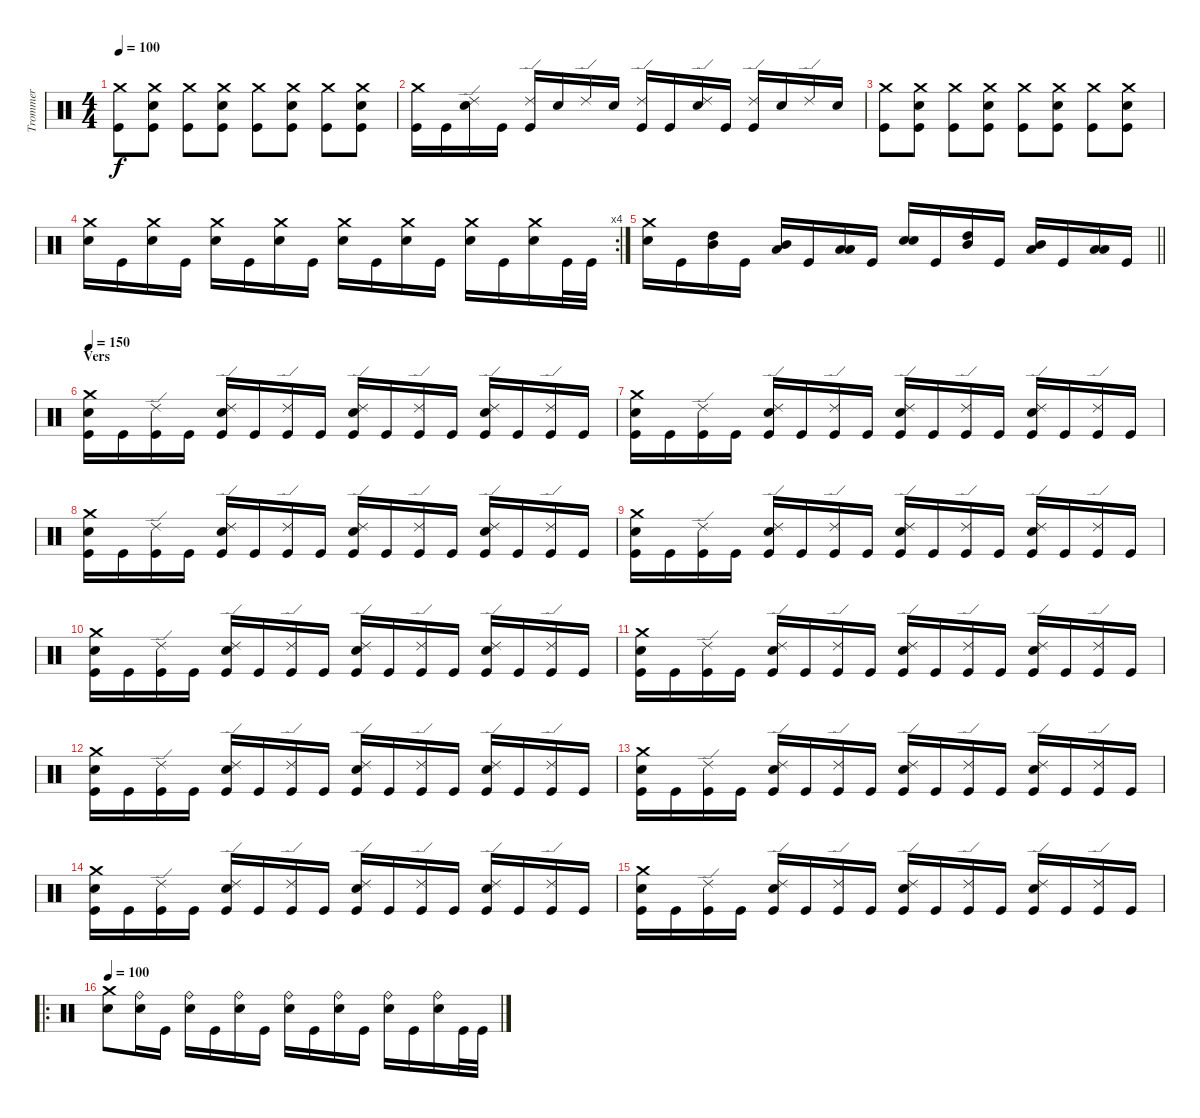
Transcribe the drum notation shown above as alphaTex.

\track ("Trommer" "Trommer") {instrument percussion}
\staff {score}
\articulation defaults
\ts (4 4)
\tempo 100
\clef neutral
\ks c
("Crash medium (hit)" "Kick (hit)").8{dy f} ("Crash medium (hit)" "Snare (hit) 2" "Kick (hit)").8 ("Crash medium (hit)" "Kick (hit)").8 ("Crash medium (hit)" "Snare (hit) 2" "Kick (hit)").8 ("Crash medium (hit)" "Kick (hit)").8 ("Crash medium (hit)" "Snare (hit) 2" "Kick (hit)").8 ("Crash medium (hit)" "Kick (hit)").8 ("Crash medium (hit)" "Snare (hit) 2" "Kick (hit)").8 |
("Crash medium (hit)" "Kick (hit)").16 "Kick (hit)".16 ("Ride (edge) 2" "Snare (hit) 2").16 "Kick (hit)".16 ("Ride (edge) 2" "Kick (hit)").16 "Snare (hit) 2".16 "Ride (edge) 2".16 "Snare (hit) 2".16 ("Ride (edge) 2" "Kick (hit)").16 "Kick (hit)".16 ("Ride (edge) 2" "Snare (hit) 2").16 "Kick (hit)".16 ("Ride (edge) 2" "Kick (hit)").16 "Snare (hit) 2".16 "Ride (edge) 2".16 "Snare (hit) 2".16 |
("Crash medium (hit)" "Kick (hit)").8 ("Crash medium (hit)" "Snare (hit) 2" "Kick (hit)").8 ("Crash medium (hit)" "Kick (hit)").8 ("Crash medium (hit)" "Snare (hit) 2" "Kick (hit)").8 ("Crash medium (hit)" "Kick (hit)").8 ("Crash medium (hit)" "Snare (hit) 2" "Kick (hit)").8 ("Crash medium (hit)" "Kick (hit)").8 ("Crash medium (hit)" "Snare (hit) 2" "Kick (hit)").8 |
\rc 4
("Crash medium (hit)" "Snare (hit) 2").16 "Kick (hit)".16 ("Crash medium (hit)" "Snare (hit) 2").16 "Kick (hit)".16 ("Crash medium (hit)" "Snare (hit) 2").16 "Kick (hit)".16 ("Crash medium (hit)" "Snare (hit) 2").16 "Kick (hit)".16 ("Crash medium (hit)" "Snare (hit) 2").16 "Kick (hit)".16 ("Crash medium (hit)" "Snare (hit) 2").16 "Kick (hit)".16 ("Crash medium (hit)" "Snare (hit) 2").16 "Kick (hit)".16 ("Crash medium (hit)" "Snare (hit) 2").16 "Kick (hit)".32 "Kick (hit)".32 |
\barLineRight lightlight
("Crash medium (hit)" "Snare (hit) 2").16 "Kick (hit)".16 ("High Tom (hit)" "Mid Tom (hit)").16 "Kick (hit)".16 ("Mid Tom (hit)" "Low Floor Tom (hit)").16 "Kick (hit)".16 ("Low Floor Tom (hit)" "Low Floor Tom (hit)").16 "Kick (hit)".16 ("Snare (hit) 2" "Snare (hit) 2").16 "Kick (hit)".16 ("High Tom (hit)" "Mid Tom (hit)").16 "Kick (hit)".16 ("Mid Tom (hit)" "Low Floor Tom (hit)").16 "Kick (hit)".16 ("Low Floor Tom (hit)" "Low Floor Tom (hit)").16 "Kick (hit)".16 |
\section ("" "Vers")
\tempo 150
("Crash medium (hit)" "Snare (hit) 2" "Kick (hit)").16 "Kick (hit)".16 ("Ride (edge) 2" "Kick (hit)").16 "Kick (hit)".16 ("Ride (edge) 2" "Snare (hit) 2" "Kick (hit)").16 "Kick (hit)".16 ("Ride (edge) 2" "Kick (hit)").16 "Kick (hit)".16 ("Ride (edge) 2" "Snare (hit) 2" "Kick (hit)").16 "Kick (hit)".16 ("Ride (edge) 2" "Kick (hit)").16 "Kick (hit)".16 ("Ride (edge) 2" "Snare (hit) 2" "Kick (hit)").16 "Kick (hit)".16 ("Ride (edge) 2" "Kick (hit)").16 "Kick (hit)".16 |
("Crash medium (hit)" "Snare (hit) 2" "Kick (hit)").16 "Kick (hit)".16 ("Ride (edge) 2" "Kick (hit)").16 "Kick (hit)".16 ("Ride (edge) 2" "Snare (hit) 2" "Kick (hit)").16 "Kick (hit)".16 ("Ride (edge) 2" "Kick (hit)").16 "Kick (hit)".16 ("Ride (edge) 2" "Snare (hit) 2" "Kick (hit)").16 "Kick (hit)".16 ("Ride (edge) 2" "Kick (hit)").16 "Kick (hit)".16 ("Ride (edge) 2" "Snare (hit) 2" "Kick (hit)").16 "Kick (hit)".16 ("Ride (edge) 2" "Kick (hit)").16 "Kick (hit)".16 |
("Crash medium (hit)" "Snare (hit) 2" "Kick (hit)").16 "Kick (hit)".16 ("Ride (edge) 2" "Kick (hit)").16 "Kick (hit)".16 ("Ride (edge) 2" "Snare (hit) 2" "Kick (hit)").16 "Kick (hit)".16 ("Ride (edge) 2" "Kick (hit)").16 "Kick (hit)".16 ("Ride (edge) 2" "Snare (hit) 2" "Kick (hit)").16 "Kick (hit)".16 ("Ride (edge) 2" "Kick (hit)").16 "Kick (hit)".16 ("Ride (edge) 2" "Snare (hit) 2" "Kick (hit)").16 "Kick (hit)".16 ("Ride (edge) 2" "Kick (hit)").16 "Kick (hit)".16 |
("Crash medium (hit)" "Snare (hit) 2" "Kick (hit)").16 "Kick (hit)".16 ("Ride (edge) 2" "Kick (hit)").16 "Kick (hit)".16 ("Ride (edge) 2" "Snare (hit) 2" "Kick (hit)").16 "Kick (hit)".16 ("Ride (edge) 2" "Kick (hit)").16 "Kick (hit)".16 ("Ride (edge) 2" "Snare (hit) 2" "Kick (hit)").16 "Kick (hit)".16 ("Ride (edge) 2" "Kick (hit)").16 "Kick (hit)".16 ("Ride (edge) 2" "Snare (hit) 2" "Kick (hit)").16 "Kick (hit)".16 ("Ride (edge) 2" "Kick (hit)").16 "Kick (hit)".16 |
("Crash medium (hit)" "Snare (hit) 2" "Kick (hit)").16 "Kick (hit)".16 ("Ride (edge) 2" "Kick (hit)").16 "Kick (hit)".16 ("Ride (edge) 2" "Snare (hit) 2" "Kick (hit)").16 "Kick (hit)".16 ("Ride (edge) 2" "Kick (hit)").16 "Kick (hit)".16 ("Ride (edge) 2" "Snare (hit) 2" "Kick (hit)").16 "Kick (hit)".16 ("Ride (edge) 2" "Kick (hit)").16 "Kick (hit)".16 ("Ride (edge) 2" "Snare (hit) 2" "Kick (hit)").16 "Kick (hit)".16 ("Ride (edge) 2" "Kick (hit)").16 "Kick (hit)".16 |
("Crash medium (hit)" "Snare (hit) 2" "Kick (hit)").16 "Kick (hit)".16 ("Ride (edge) 2" "Kick (hit)").16 "Kick (hit)".16 ("Ride (edge) 2" "Snare (hit) 2" "Kick (hit)").16 "Kick (hit)".16 ("Ride (edge) 2" "Kick (hit)").16 "Kick (hit)".16 ("Ride (edge) 2" "Snare (hit) 2" "Kick (hit)").16 "Kick (hit)".16 ("Ride (edge) 2" "Kick (hit)").16 "Kick (hit)".16 ("Ride (edge) 2" "Snare (hit) 2" "Kick (hit)").16 "Kick (hit)".16 ("Ride (edge) 2" "Kick (hit)").16 "Kick (hit)".16 |
("Crash medium (hit)" "Snare (hit) 2" "Kick (hit)").16 "Kick (hit)".16 ("Ride (edge) 2" "Kick (hit)").16 "Kick (hit)".16 ("Ride (edge) 2" "Snare (hit) 2" "Kick (hit)").16 "Kick (hit)".16 ("Ride (edge) 2" "Kick (hit)").16 "Kick (hit)".16 ("Ride (edge) 2" "Snare (hit) 2" "Kick (hit)").16 "Kick (hit)".16 ("Ride (edge) 2" "Kick (hit)").16 "Kick (hit)".16 ("Ride (edge) 2" "Snare (hit) 2" "Kick (hit)").16 "Kick (hit)".16 ("Ride (edge) 2" "Kick (hit)").16 "Kick (hit)".16 |
("Crash medium (hit)" "Snare (hit) 2" "Kick (hit)").16 "Kick (hit)".16 ("Ride (edge) 2" "Kick (hit)").16 "Kick (hit)".16 ("Ride (edge) 2" "Snare (hit) 2" "Kick (hit)").16 "Kick (hit)".16 ("Ride (edge) 2" "Kick (hit)").16 "Kick (hit)".16 ("Ride (edge) 2" "Snare (hit) 2" "Kick (hit)").16 "Kick (hit)".16 ("Ride (edge) 2" "Kick (hit)").16 "Kick (hit)".16 ("Ride (edge) 2" "Snare (hit) 2" "Kick (hit)").16 "Kick (hit)".16 ("Ride (edge) 2" "Kick (hit)").16 "Kick (hit)".16 |
("Crash medium (hit)" "Snare (hit) 2" "Kick (hit)").16 "Kick (hit)".16 ("Ride (edge) 2" "Kick (hit)").16 "Kick (hit)".16 ("Ride (edge) 2" "Snare (hit) 2" "Kick (hit)").16 "Kick (hit)".16 ("Ride (edge) 2" "Kick (hit)").16 "Kick (hit)".16 ("Ride (edge) 2" "Snare (hit) 2" "Kick (hit)").16 "Kick (hit)".16 ("Ride (edge) 2" "Kick (hit)").16 "Kick (hit)".16 ("Ride (edge) 2" "Snare (hit) 2" "Kick (hit)").16 "Kick (hit)".16 ("Ride (edge) 2" "Kick (hit)").16 "Kick (hit)".16 |
("Crash medium (hit)" "Snare (hit) 2" "Kick (hit)").16 "Kick (hit)".16 ("Ride (edge) 2" "Kick (hit)").16 "Kick (hit)".16 ("Ride (edge) 2" "Snare (hit) 2" "Kick (hit)").16 "Kick (hit)".16 ("Ride (edge) 2" "Kick (hit)").16 "Kick (hit)".16 ("Ride (edge) 2" "Snare (hit) 2" "Kick (hit)").16 "Kick (hit)".16 ("Ride (edge) 2" "Kick (hit)").16 "Kick (hit)".16 ("Ride (edge) 2" "Snare (hit) 2" "Kick (hit)").16 "Kick (hit)".16 ("Ride (edge) 2" "Kick (hit)").16 "Kick (hit)".16 |
\ro
\tempo 100
("Crash medium (hit)" "Snare (hit) 2").8 ("Ride (bell)" "Snare (hit) 2").16 "Kick (hit)".16 ("Ride (bell)" "Snare (hit) 2").16 "Kick (hit)".16 ("Ride (bell)" "Snare (hit) 2").16 "Kick (hit)".16 ("Ride (bell)" "Snare (hit) 2").16 "Kick (hit)".16 ("Ride (bell)" "Snare (hit) 2").16 "Kick (hit)".16 ("Ride (bell)" "Snare (hit) 2").16 "Kick (hit)".16 ("Ride (bell)" "Snare (hit) 2").16 "Kick (hit)".32 "Kick (hit)".32
